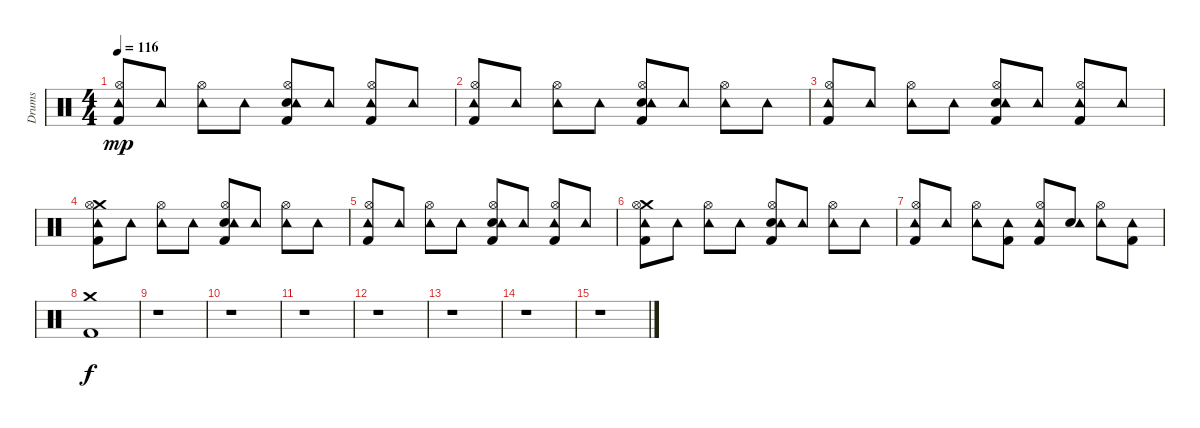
\track ("Drums" "Drums") {instrument percussion}
\staff {score}
\articulation defaults
\ts (4 4)
\tempo 116
\clef neutral
\ks c
("Kick (hit) 2" "Hi-Hat (open)" "Tambourine (hit)").8{dy mp} "Tambourine (hit)".8 ("Hi-Hat (open)" "Tambourine (hit)").8 "Tambourine (hit)".8 ("Kick (hit) 2" "Hi-Hat (open)" "Snare (hit) 2" "Tambourine (hit)").8 "Tambourine (hit)".8 ("Kick (hit) 2" "Hi-Hat (open)" "Tambourine (hit)").8 "Tambourine (hit)".8 |
("Kick (hit) 2" "Hi-Hat (open)" "Tambourine (hit)").8 "Tambourine (hit)".8 ("Hi-Hat (open)" "Tambourine (hit)").8 "Tambourine (hit)".8 ("Kick (hit) 2" "Hi-Hat (open)" "Snare (hit) 2" "Tambourine (hit)").8 "Tambourine (hit)".8 ("Hi-Hat (open)" "Tambourine (hit)").8 "Tambourine (hit)".8 |
("Kick (hit) 2" "Hi-Hat (open)" "Tambourine (hit)").8 "Tambourine (hit)".8 ("Hi-Hat (open)" "Tambourine (hit)").8 "Tambourine (hit)".8 ("Kick (hit) 2" "Hi-Hat (open)" "Snare (hit) 2" "Tambourine (hit)").8 "Tambourine (hit)".8 ("Kick (hit) 2" "Hi-Hat (open)" "Tambourine (hit)").8 "Tambourine (hit)".8 |
("Kick (hit) 2" "Crash medium (hit)" "Hi-Hat (open)" "Tambourine (hit)").8 "Tambourine (hit)".8 ("Hi-Hat (open)" "Tambourine (hit)").8 "Tambourine (hit)".8 ("Kick (hit) 2" "Hi-Hat (open)" "Snare (hit) 2" "Tambourine (hit)").8 "Tambourine (hit)".8 ("Hi-Hat (open)" "Tambourine (hit)").8 "Tambourine (hit)".8 |
("Kick (hit) 2" "Hi-Hat (open)" "Tambourine (hit)").8 "Tambourine (hit)".8 ("Hi-Hat (open)" "Tambourine (hit)").8 "Tambourine (hit)".8 ("Kick (hit) 2" "Hi-Hat (open)" "Snare (hit) 2" "Tambourine (hit)").8 "Tambourine (hit)".8 ("Kick (hit) 2" "Hi-Hat (open)" "Tambourine (hit)").8 "Tambourine (hit)".8 |
("Kick (hit) 2" "Crash medium (hit)" "Hi-Hat (open)" "Tambourine (hit)").8 "Tambourine (hit)".8 ("Hi-Hat (open)" "Tambourine (hit)").8 "Tambourine (hit)".8 ("Kick (hit) 2" "Hi-Hat (open)" "Snare (hit) 2" "Tambourine (hit)").8 "Tambourine (hit)".8 ("Hi-Hat (open)" "Tambourine (hit)").8 "Tambourine (hit)".8 |
("Kick (hit) 2" "Hi-Hat (open)" "Tambourine (hit)").8 "Tambourine (hit)".8 ("Hi-Hat (open)" "Tambourine (hit)").8 ("Kick (hit) 2" "Tambourine (hit)").8 ("Kick (hit) 2" "Hi-Hat (open)" "Tambourine (hit)").8 ("Snare (hit) 2" "Tambourine (hit)").8 ("Hi-Hat (open)" "Tambourine (hit)").8 ("Kick (hit) 2" "Tambourine (hit)").8 |
("Kick (hit) 2" "Crash medium (hit)").1{dy f} |
r.1 |
r.1 |
r.1 |
r.1 |
r.1 |
r.1 |
r.1
